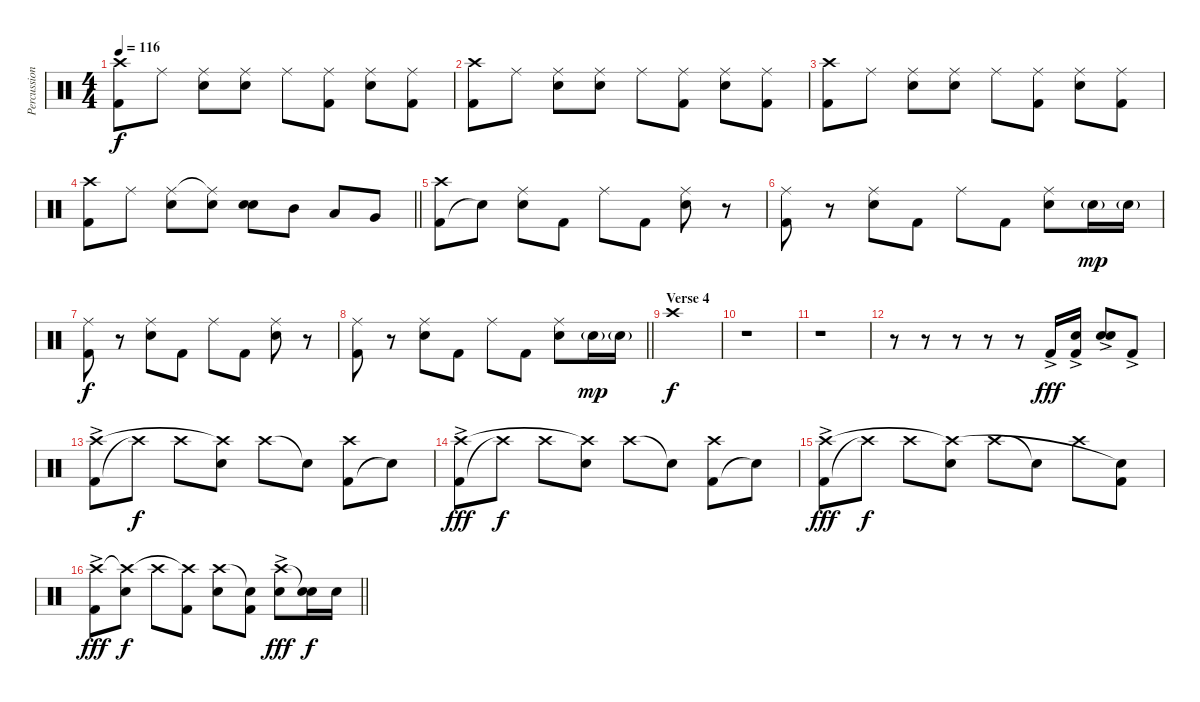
\track ("Percussion" "Percussion") {instrument percussion}
\staff {score}
\articulation defaults
\ts (4 4)
\tempo 116
\clef neutral
\ks c
("Kick (hit) 2" "Crash high (hit)").8{dy f} "Ride (middle)".8 ("Electric Snare (hit)" "Ride (middle)").8 ("Electric Snare (hit)" "Ride (middle)").8 "Ride (middle)".8 ("Kick (hit) 2" "Ride (middle)").8 ("Electric Snare (hit)" "Ride (middle)").8 ("Kick (hit) 2" "Ride (middle)").8 |
("Kick (hit) 2" "Crash high (hit)").8 "Ride (middle)".8 ("Electric Snare (hit)" "Ride (middle)").8 ("Electric Snare (hit)" "Ride (middle)").8 "Ride (middle)".8 ("Kick (hit) 2" "Ride (middle)").8 ("Electric Snare (hit)" "Ride (middle)").8 ("Kick (hit) 2" "Ride (middle)").8 |
("Kick (hit) 2" "Crash high (hit)").8 "Ride (middle)".8 ("Electric Snare (hit)" "Ride (middle)").8 ("Electric Snare (hit)" "Ride (middle)").8 "Ride (middle)".8 ("Kick (hit) 2" "Ride (middle)").8 ("Electric Snare (hit)" "Ride (middle)").8 ("Kick (hit) 2" "Ride (middle)").8 |
\barLineRight lightlight
("Kick (hit) 2" "Crash high (hit)").8 "Ride (middle)".8 ("Electric Snare (hit)" "Ride (middle)").8 ("Electric Snare (hit)" "Ride (middle)"{t}).8 ("Electric Snare (hit)" "Electric Snare (hit)").8 "Mid Tom (hit)".8 "Low Tom (hit)".8 "Very Low Tom (hit)".8 |
("Kick (hit) 2" "Crash high (hit)").8 "Snare (hit)"{t}.8 ("Electric Snare (hit)" "Ride (middle)").8 "Kick (hit) 2".8 "Ride (middle)".8 "Kick (hit) 2".8 ("Electric Snare (hit)" "Ride (middle)").8 r.8 |
("Kick (hit) 2" "Ride (middle)").8 r.8 ("Electric Snare (hit)" "Ride (middle)").8 "Kick (hit) 2".8 "Ride (middle)".8 "Kick (hit) 2".8 ("Electric Snare (hit)" "Ride (middle)").8 "Electric Snare (hit)"{g}.16{dy mp} "Electric Snare (hit)"{g}.16 |
("Kick (hit) 2" "Ride (middle)").8{dy f} r.8 ("Electric Snare (hit)" "Ride (middle)").8 "Kick (hit) 2".8 "Ride (middle)".8 "Kick (hit) 2".8 ("Electric Snare (hit)" "Ride (middle)").8 r.8 |
\barLineRight lightlight
("Kick (hit) 2" "Ride (middle)").8 r.8 ("Electric Snare (hit)" "Ride (middle)").8 "Kick (hit) 2".8 "Ride (middle)".8 "Kick (hit) 2".8 ("Electric Snare (hit)" "Ride (middle)").8 "Electric Snare (hit)"{g}.16{dy mp} "Electric Snare (hit)"{g}.16 |
\section ("" "Verse 4")
"Crash high (hit)".1{dy f} |
r.1 |
r.1 |
r.8 r.8 r.8 r.8 r.8 "Kick (hit) 2"{ac}.16{dy fff} ("Kick (hit) 2"{ac} "Snare (hit)").16 ("Electric Snare (hit)"{ac} "Electric Snare (hit)"{ac}).8 "Kick (hit) 2"{ac}.8 |
("Kick (hit) 2" "Crash high (hit)"{ac}).8 "Crash high (hit)"{t}.8{dy f} "Crash high (hit)".8 ("Electric Snare (hit)" "Crash high (hit)"{t}).8 "Crash high (hit)".8 "Snare (hit)"{t}.8 ("Kick (hit) 2" "Crash high (hit)").8 "Snare (hit)"{t}.8 |
("Kick (hit) 2" "Crash high (hit)"{ac}).8{dy fff} "Crash high (hit)"{t}.8{dy f} "Crash high (hit)".8 ("Electric Snare (hit)" "Crash high (hit)"{t}).8 "Crash high (hit)".8 "Snare (hit)"{t}.8 ("Kick (hit) 2" "Crash high (hit)").8 "Snare (hit)"{t}.8 |
("Kick (hit) 2" "Crash high (hit)"{ac}).8{dy fff} "Crash high (hit)"{t}.8{dy f} "Crash high (hit)".8 ("Electric Snare (hit)" "Crash high (hit)"{t}).8 "Crash high (hit)".8 "Snare (hit)"{t}.8 "Crash high (hit)".8 ("Kick (hit) 2" "Snare (hit)"{t}).8 |
\barLineRight lightlight
("Kick (hit) 2" "Crash high (hit)"{ac}).8{dy fff} ("Electric Snare (hit)" "Crash high (hit)"{t}).8{dy f} "Crash high (hit)".8 ("Kick (hit) 2" "Crash high (hit)"{t}).8 ("Electric Snare (hit)" "Crash high (hit)").8 ("Kick (hit) 2" "Snare (hit)"{t}).8 ("Electric Snare (hit)" "Crash high (hit)"{ac}).8{dy fff} ("Electric Snare (hit)" "Snare (hit)"{t}).16{dy f} "Electric Snare (hit)".16
